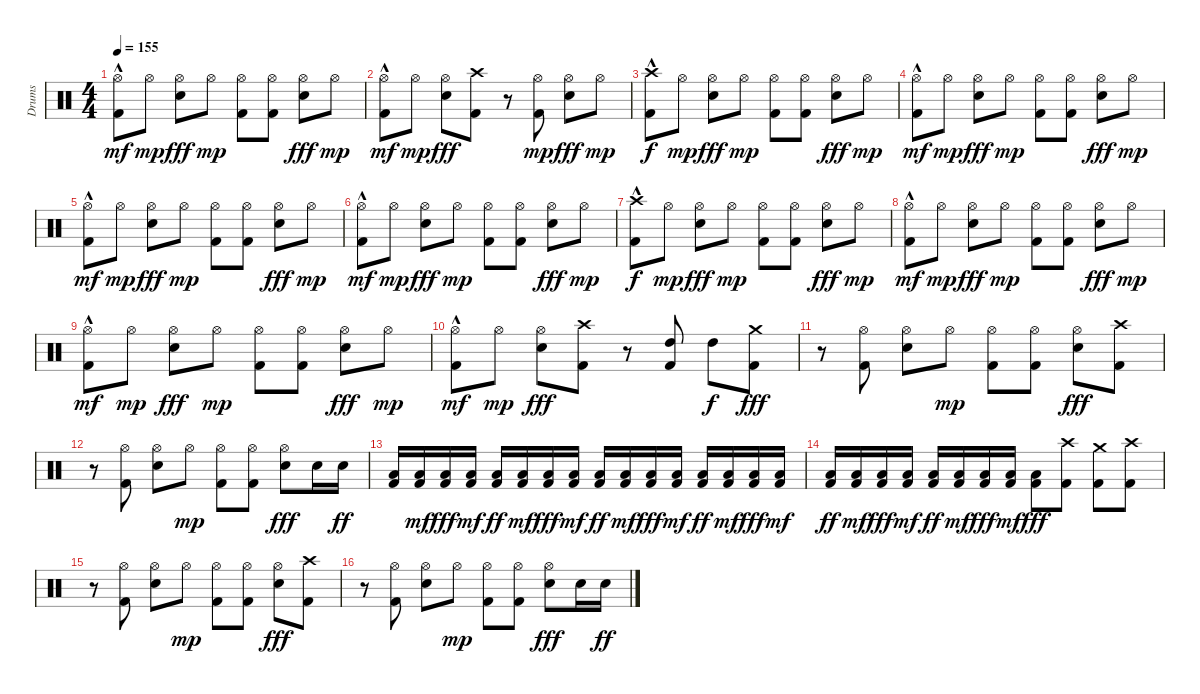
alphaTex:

\track ("Drums" "Drums") {instrument percussion}
\staff {score}
\articulation defaults
\ts (4 4)
\tempo 155
\clef neutral
\ks c
("Kick (hit) 2"{hac} "Hi-Hat (open)").8{dy mf} "Hi-Hat (open)".8{dy mp} ("Snare (hit) 2" "Hi-Hat (open)").8{dy fff} "Hi-Hat (open)".8{dy mp} ("Kick (hit) 2" "Hi-Hat (open)").8 ("Kick (hit) 2" "Hi-Hat (open)").8 ("Snare (hit) 2" "Hi-Hat (open)").8{dy fff} "Hi-Hat (open)".8{dy mp} |
("Kick (hit) 2"{hac} "Hi-Hat (open)").8{dy mf} "Hi-Hat (open)".8{dy mp} ("Snare (hit) 2" "Hi-Hat (open)").8{dy fff} ("Kick (hit) 2" "Crash high (hit)").8 r.8 ("Kick (hit) 2" "Hi-Hat (open)").8{dy mp} ("Snare (hit) 2" "Hi-Hat (open)").8{dy fff} "Hi-Hat (open)".8{dy mp} |
("Kick (hit) 2"{hac} "Crash high (hit)").8{dy f} "Hi-Hat (open)".8{dy mp} ("Snare (hit) 2" "Hi-Hat (open)").8{dy fff} "Hi-Hat (open)".8{dy mp} ("Kick (hit) 2" "Hi-Hat (open)").8 ("Kick (hit) 2" "Hi-Hat (open)").8 ("Snare (hit) 2" "Hi-Hat (open)").8{dy fff} "Hi-Hat (open)".8{dy mp} |
("Kick (hit) 2"{hac} "Hi-Hat (open)").8{dy mf} "Hi-Hat (open)".8{dy mp} ("Snare (hit) 2" "Hi-Hat (open)").8{dy fff} "Hi-Hat (open)".8{dy mp} ("Kick (hit) 2" "Hi-Hat (open)").8 ("Kick (hit) 2" "Hi-Hat (open)").8 ("Snare (hit) 2" "Hi-Hat (open)").8{dy fff} "Hi-Hat (open)".8{dy mp} |
("Kick (hit) 2"{hac} "Hi-Hat (open)").8{dy mf} "Hi-Hat (open)".8{dy mp} ("Snare (hit) 2" "Hi-Hat (open)").8{dy fff} "Hi-Hat (open)".8{dy mp} ("Kick (hit) 2" "Hi-Hat (open)").8 ("Kick (hit) 2" "Hi-Hat (open)").8 ("Snare (hit) 2" "Hi-Hat (open)").8{dy fff} "Hi-Hat (open)".8{dy mp} |
("Kick (hit) 2"{hac} "Hi-Hat (open)").8{dy mf} "Hi-Hat (open)".8{dy mp} ("Snare (hit) 2" "Hi-Hat (open)").8{dy fff} "Hi-Hat (open)".8{dy mp} ("Kick (hit) 2" "Hi-Hat (open)").8 ("Kick (hit) 2" "Hi-Hat (open)").8 ("Snare (hit) 2" "Hi-Hat (open)").8{dy fff} "Hi-Hat (open)".8{dy mp} |
("Kick (hit) 2"{hac} "Crash high (hit)").8{dy f} "Hi-Hat (open)".8{dy mp} ("Snare (hit) 2" "Hi-Hat (open)").8{dy fff} "Hi-Hat (open)".8{dy mp} ("Kick (hit) 2" "Hi-Hat (open)").8 ("Kick (hit) 2" "Hi-Hat (open)").8 ("Snare (hit) 2" "Hi-Hat (open)").8{dy fff} "Hi-Hat (open)".8{dy mp} |
("Kick (hit) 2"{hac} "Hi-Hat (open)").8{dy mf} "Hi-Hat (open)".8{dy mp} ("Snare (hit) 2" "Hi-Hat (open)").8{dy fff} "Hi-Hat (open)".8{dy mp} ("Kick (hit) 2" "Hi-Hat (open)").8 ("Kick (hit) 2" "Hi-Hat (open)").8 ("Snare (hit) 2" "Hi-Hat (open)").8{dy fff} "Hi-Hat (open)".8{dy mp} |
("Kick (hit) 2"{hac} "Hi-Hat (open)").8{dy mf} "Hi-Hat (open)".8{dy mp} ("Snare (hit) 2" "Hi-Hat (open)").8{dy fff} "Hi-Hat (open)".8{dy mp} ("Kick (hit) 2" "Hi-Hat (open)").8 ("Kick (hit) 2" "Hi-Hat (open)").8 ("Snare (hit) 2" "Hi-Hat (open)").8{dy fff} "Hi-Hat (open)".8{dy mp} |
("Kick (hit) 2"{hac} "Hi-Hat (open)").8{dy mf} "Hi-Hat (open)".8{dy mp} ("Snare (hit) 2" "Hi-Hat (open)").8{dy fff} ("Kick (hit) 2" "Crash high (hit)").8 r.8 ("Kick (hit) 2" "High Tom (hit)").8 "High Tom (hit)".8{dy f} ("Kick (hit) 2" "Crash medium (hit)").8{dy fff} |
r.8 ("Hi-Hat (open)" "Kick (hit) 2").8 ("Snare (hit) 2" "Hi-Hat (open)").8 "Hi-Hat (open)".8{dy mp} ("Kick (hit) 2" "Hi-Hat (open)").8 ("Kick (hit) 2" "Hi-Hat (open)").8 ("Snare (hit) 2" "Hi-Hat (open)").8{dy fff} ("Crash high (hit)" "Kick (hit) 2").8 |
r.8 ("Hi-Hat (open)" "Kick (hit) 2").8 ("Snare (hit) 2" "Hi-Hat (open)").8 "Hi-Hat (open)".8{dy mp} ("Kick (hit) 2" "Hi-Hat (open)").8 ("Kick (hit) 2" "Hi-Hat (open)").8 ("Snare (hit) 2" "Hi-Hat (open)").8{dy fff} "Snare (hit) 2".16 "Snare (hit) 2".16{dy ff} |
("Kick (hit) 2" "Low Tom (hit)").16 ("Kick (hit) 2" "Low Tom (hit)").16{dy mf} ("Kick (hit) 2" "Low Tom (hit)").16{dy fff} ("Kick (hit) 2" "Low Tom (hit)").16{dy mf} ("Kick (hit) 2" "Low Tom (hit)").16{dy ff} ("Kick (hit) 2" "Low Tom (hit)").16{dy mf} ("Kick (hit) 2" "Low Tom (hit)").16{dy fff} ("Kick (hit) 2" "Low Tom (hit)").16{dy mf} ("Kick (hit) 2" "Low Tom (hit)").16{dy ff} ("Kick (hit) 2" "Low Tom (hit)").16{dy mf} ("Kick (hit) 2" "Low Tom (hit)").16{dy fff} ("Kick (hit) 2" "Low Tom (hit)").16{dy mf} ("Kick (hit) 2" "Low Tom (hit)").16{dy ff} ("Kick (hit) 2" "Low Tom (hit)").16{dy mf} ("Kick (hit) 2" "Low Tom (hit)").16{dy fff} ("Kick (hit) 2" "Low Tom (hit)").16{dy mf} |
("Kick (hit) 2" "Low Tom (hit)").16{dy ff} ("Kick (hit) 2" "Low Tom (hit)").16{dy mf} ("Kick (hit) 2" "Low Tom (hit)").16{dy fff} ("Kick (hit) 2" "Low Tom (hit)").16{dy mf} ("Kick (hit) 2" "Low Tom (hit)").16{dy ff} ("Kick (hit) 2" "Low Tom (hit)").16{dy mf} ("Kick (hit) 2" "Low Tom (hit)").16{dy fff} ("Kick (hit) 2" "Low Tom (hit)").16{dy mf} ("Low Tom (hit)" "Kick (hit) 2").8{dy fff} ("Kick (hit) 2" "Crash high (hit)").8 ("Kick (hit) 2" "Crash medium (hit)").8 ("Kick (hit) 2" "Crash high (hit)").8 |
r.8 ("Hi-Hat (open)" "Kick (hit) 2").8 ("Snare (hit) 2" "Hi-Hat (open)").8 "Hi-Hat (open)".8{dy mp} ("Kick (hit) 2" "Hi-Hat (open)").8 ("Kick (hit) 2" "Hi-Hat (open)").8 ("Snare (hit) 2" "Hi-Hat (open)").8{dy fff} ("Crash high (hit)" "Kick (hit) 2").8 |
r.8 ("Hi-Hat (open)" "Kick (hit) 2").8 ("Snare (hit) 2" "Hi-Hat (open)").8 "Hi-Hat (open)".8{dy mp} ("Kick (hit) 2" "Hi-Hat (open)").8 ("Kick (hit) 2" "Hi-Hat (open)").8 ("Snare (hit) 2" "Hi-Hat (open)").8{dy fff} "Snare (hit) 2".16 "Snare (hit) 2".16{dy ff}
